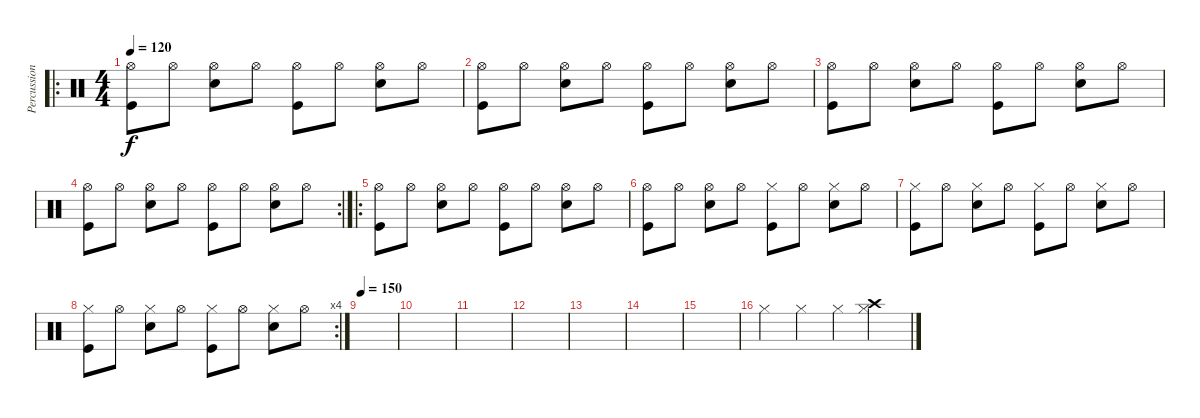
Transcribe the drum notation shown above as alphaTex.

\track ("Percussion" "Percussion") {instrument percussion}
\staff {score}
\articulation defaults
\ro
\ts (4 4)
\tempo 120
\clef neutral
\ks c
("Hi-Hat (open)" "Kick (hit)").8{dy f} "Hi-Hat (open)".8 ("Hi-Hat (open)" "Electric Snare (hit)").8 "Hi-Hat (open)".8 ("Hi-Hat (open)" "Kick (hit)").8 "Hi-Hat (open)".8 ("Hi-Hat (open)" "Electric Snare (hit)").8 "Hi-Hat (open)".8 |
("Hi-Hat (open)" "Kick (hit)").8 "Hi-Hat (open)".8 ("Hi-Hat (open)" "Electric Snare (hit)").8 "Hi-Hat (open)".8 ("Hi-Hat (open)" "Kick (hit)").8 "Hi-Hat (open)".8 ("Hi-Hat (open)" "Electric Snare (hit)").8 "Hi-Hat (open)".8 |
("Hi-Hat (open)" "Kick (hit)").8 "Hi-Hat (open)".8 ("Hi-Hat (open)" "Electric Snare (hit)").8 "Hi-Hat (open)".8 ("Hi-Hat (open)" "Kick (hit)").8 "Hi-Hat (open)".8 ("Hi-Hat (open)" "Electric Snare (hit)").8 "Hi-Hat (open)".8 |
\rc 2
("Hi-Hat (open)" "Kick (hit)").8 "Hi-Hat (open)".8 ("Hi-Hat (open)" "Electric Snare (hit)").8 "Hi-Hat (open)".8 ("Hi-Hat (open)" "Kick (hit)").8 "Hi-Hat (open)".8 ("Hi-Hat (open)" "Electric Snare (hit)").8 "Hi-Hat (open)".8 |
\ro
("Hi-Hat (open)" "Kick (hit)").8 "Hi-Hat (open)".8 ("Hi-Hat (open)" "Electric Snare (hit)").8 "Hi-Hat (open)".8 ("Hi-Hat (open)" "Kick (hit)").8 "Hi-Hat (open)".8 ("Hi-Hat (open)" "Electric Snare (hit)").8 "Hi-Hat (open)".8 |
("Hi-Hat (open)" "Kick (hit)").8 "Hi-Hat (open)".8 ("Hi-Hat (open)" "Electric Snare (hit)").8 "Hi-Hat (open)".8 ("Hi-Hat (closed)" "Kick (hit)").8 "Hi-Hat (open)".8 ("Hi-Hat (closed)" "Electric Snare (hit)").8 "Hi-Hat (open)".8 |
("Hi-Hat (closed)" "Kick (hit)").8 "Hi-Hat (open)".8 ("Hi-Hat (closed)" "Electric Snare (hit)").8 "Hi-Hat (open)".8 ("Hi-Hat (closed)" "Kick (hit)").8 "Hi-Hat (open)".8 ("Hi-Hat (closed)" "Electric Snare (hit)").8 "Hi-Hat (open)".8 |
\rc 4
("Hi-Hat (closed)" "Kick (hit)").8 "Hi-Hat (open)".8 ("Hi-Hat (closed)" "Electric Snare (hit)").8 "Hi-Hat (open)".8 ("Hi-Hat (closed)" "Kick (hit)").8 "Hi-Hat (open)".8 ("Hi-Hat (closed)" "Electric Snare (hit)").8 "Hi-Hat (open)".8 |
\tempo 150
|
|
|
|
|
|
|
"Hi-Hat (closed)".4 "Hi-Hat (closed)".4 "Hi-Hat (closed)".4 ("Crash high (hit)" "Hi-Hat (closed)").4
